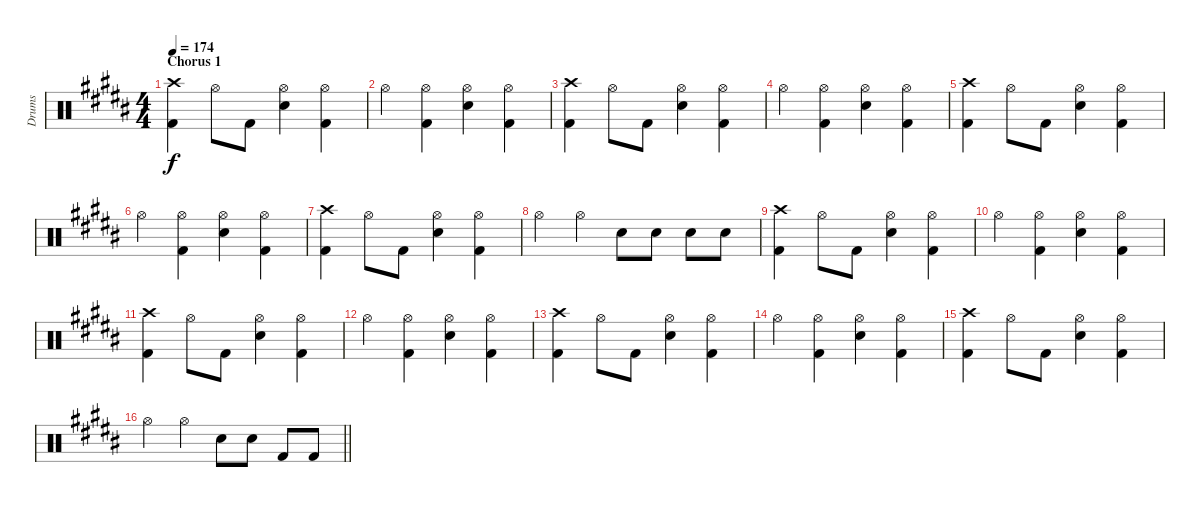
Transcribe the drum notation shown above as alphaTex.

\track ("Drums" "Drums") {instrument percussion}
\staff {score}
\articulation defaults
\ts (4 4)
\section ("" "Chorus 1")
\tempo 174
\clef neutral
\ks g#minor
("Crash high (hit)" "Kick (hit) 2").4{dy f} "Hi-Hat (open)".8 "Kick (hit) 2".8 ("Hi-Hat (open)" "Electric Snare (hit)").4 ("Hi-Hat (open)" "Kick (hit) 2").4 |
"Hi-Hat (open)".4 ("Hi-Hat (open)" "Kick (hit) 2").4 ("Hi-Hat (open)" "Electric Snare (hit)").4 ("Hi-Hat (open)" "Kick (hit) 2").4 |
("Crash high (hit)" "Kick (hit) 2").4 "Hi-Hat (open)".8 "Kick (hit) 2".8 ("Hi-Hat (open)" "Electric Snare (hit)").4 ("Hi-Hat (open)" "Kick (hit) 2").4 |
"Hi-Hat (open)".4 ("Hi-Hat (open)" "Kick (hit) 2").4 ("Hi-Hat (open)" "Electric Snare (hit)").4 ("Hi-Hat (open)" "Kick (hit) 2").4 |
("Crash high (hit)" "Kick (hit) 2").4 "Hi-Hat (open)".8 "Kick (hit) 2".8 ("Hi-Hat (open)" "Electric Snare (hit)").4 ("Hi-Hat (open)" "Kick (hit) 2").4 |
"Hi-Hat (open)".4 ("Hi-Hat (open)" "Kick (hit) 2").4 ("Hi-Hat (open)" "Electric Snare (hit)").4 ("Hi-Hat (open)" "Kick (hit) 2").4 |
("Crash high (hit)" "Kick (hit) 2").4 "Hi-Hat (open)".8 "Kick (hit) 2".8 ("Hi-Hat (open)" "Electric Snare (hit)").4 ("Hi-Hat (open)" "Kick (hit) 2").4 |
"Hi-Hat (open)".4 "Hi-Hat (open)".4 "Electric Snare (hit)".8 "Electric Snare (hit)".8 "Electric Snare (hit)".8 "Electric Snare (hit)".8 |
("Crash high (hit)" "Kick (hit) 2").4 "Hi-Hat (open)".8 "Kick (hit) 2".8 ("Hi-Hat (open)" "Electric Snare (hit)").4 ("Hi-Hat (open)" "Kick (hit) 2").4 |
"Hi-Hat (open)".4 ("Hi-Hat (open)" "Kick (hit) 2").4 ("Hi-Hat (open)" "Electric Snare (hit)").4 ("Hi-Hat (open)" "Kick (hit) 2").4 |
("Crash high (hit)" "Kick (hit) 2").4 "Hi-Hat (open)".8 "Kick (hit) 2".8 ("Hi-Hat (open)" "Electric Snare (hit)").4 ("Hi-Hat (open)" "Kick (hit) 2").4 |
"Hi-Hat (open)".4 ("Hi-Hat (open)" "Kick (hit) 2").4 ("Hi-Hat (open)" "Electric Snare (hit)").4 ("Hi-Hat (open)" "Kick (hit) 2").4 |
("Crash high (hit)" "Kick (hit) 2").4 "Hi-Hat (open)".8 "Kick (hit) 2".8 ("Hi-Hat (open)" "Electric Snare (hit)").4 ("Hi-Hat (open)" "Kick (hit) 2").4 |
"Hi-Hat (open)".4 ("Hi-Hat (open)" "Kick (hit) 2").4 ("Hi-Hat (open)" "Electric Snare (hit)").4 ("Hi-Hat (open)" "Kick (hit) 2").4 |
("Crash high (hit)" "Kick (hit) 2").4 "Hi-Hat (open)".8 "Kick (hit) 2".8 ("Hi-Hat (open)" "Electric Snare (hit)").4 ("Hi-Hat (open)" "Kick (hit) 2").4 |
\barLineRight lightlight "Hi-Hat (open)".4 "Hi-Hat (open)".4 "Electric Snare (hit)".8 "Electric Snare (hit)".8 "Kick (hit) 2".8 "Kick (hit) 2".8
